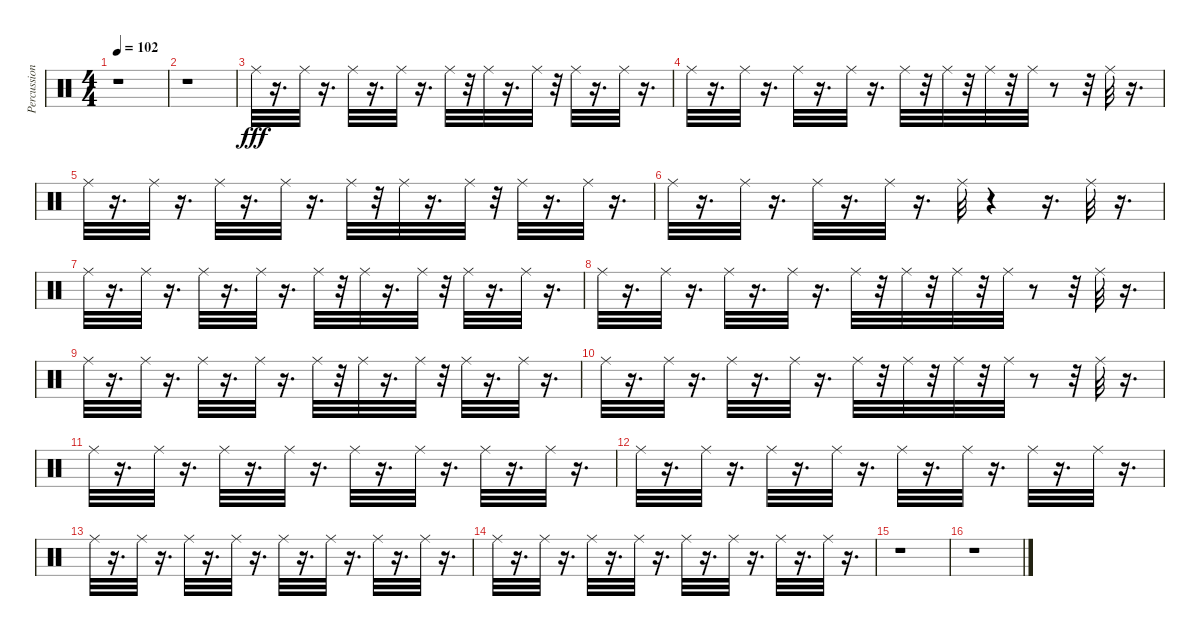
\track ("Percussion" "Percussion") {instrument percussion}
\staff {score}
\articulation defaults
\ts (4 4)
\tempo 102
\clef neutral
\ks c
r.1{dy fff} |
r.1 |
"Ride (middle)".32 r.16{d} "Ride (middle)".32 r.16{d} "Ride (middle)".32 r.16{d} "Ride (middle)".32 r.16{d} "Ride (middle)".32 r.32 "Ride (middle)".32 r.16{d} "Ride (middle)".32 r.32 "Ride (middle)".32 r.16{d} "Ride (middle)".32 r.16{d} |
"Ride (middle)".32 r.16{d} "Ride (middle)".32 r.16{d} "Ride (middle)".32 r.16{d} "Ride (middle)".32 r.16{d} "Ride (middle)".32 r.32 "Ride (middle)".32 r.32 "Ride (middle)".32 r.32 "Ride (middle)".32 r.8 r.32 "Ride (middle)".32 r.16{d} |
"Ride (middle)".32 r.16{d} "Ride (middle)".32 r.16{d} "Ride (middle)".32 r.16{d} "Ride (middle)".32 r.16{d} "Ride (middle)".32 r.32 "Ride (middle)".32 r.16{d} "Ride (middle)".32 r.32 "Ride (middle)".32 r.16{d} "Ride (middle)".32 r.16{d} |
"Ride (middle)".32 r.16{d} "Ride (middle)".32 r.16{d} "Ride (middle)".32 r.16{d} "Ride (middle)".32 r.16{d} "Ride (middle)".32 r.4 r.16{d} "Ride (middle)".32 r.16{d} |
"Ride (middle)".32 r.16{d} "Ride (middle)".32 r.16{d} "Ride (middle)".32 r.16{d} "Ride (middle)".32 r.16{d} "Ride (middle)".32 r.32 "Ride (middle)".32 r.16{d} "Ride (middle)".32 r.32 "Ride (middle)".32 r.16{d} "Ride (middle)".32 r.16{d} |
"Ride (middle)".32 r.16{d} "Ride (middle)".32 r.16{d} "Ride (middle)".32 r.16{d} "Ride (middle)".32 r.16{d} "Ride (middle)".32 r.32 "Ride (middle)".32 r.32 "Ride (middle)".32 r.32 "Ride (middle)".32 r.8 r.32 "Ride (middle)".32 r.16{d} |
"Ride (middle)".32 r.16{d} "Ride (middle)".32 r.16{d} "Ride (middle)".32 r.16{d} "Ride (middle)".32 r.16{d} "Ride (middle)".32 r.32 "Ride (middle)".32 r.16{d} "Ride (middle)".32 r.32 "Ride (middle)".32 r.16{d} "Ride (middle)".32 r.16{d} |
"Ride (middle)".32 r.16{d} "Ride (middle)".32 r.16{d} "Ride (middle)".32 r.16{d} "Ride (middle)".32 r.16{d} "Ride (middle)".32 r.32 "Ride (middle)".32 r.32 "Ride (middle)".32 r.32 "Ride (middle)".32 r.8 r.32 "Ride (middle)".32 r.16{d} |
"Ride (middle)".32 r.16{d} "Ride (middle)".32 r.16{d} "Ride (middle)".32 r.16{d} "Ride (middle)".32 r.16{d} "Ride (middle)".32 r.16{d} "Ride (middle)".32 r.16{d} "Ride (middle)".32 r.16{d} "Ride (middle)".32 r.16{d} |
"Ride (middle)".32 r.16{d} "Ride (middle)".32 r.16{d} "Ride (middle)".32 r.16{d} "Ride (middle)".32 r.16{d} "Ride (middle)".32 r.16{d} "Ride (middle)".32 r.16{d} "Ride (middle)".32 r.16{d} "Ride (middle)".32 r.16{d} |
"Ride (middle)".32 r.16{d} "Ride (middle)".32 r.16{d} "Ride (middle)".32 r.16{d} "Ride (middle)".32 r.16{d} "Ride (middle)".32 r.16{d} "Ride (middle)".32 r.16{d} "Ride (middle)".32 r.16{d} "Ride (middle)".32 r.16{d} |
"Ride (middle)".32 r.16{d} "Ride (middle)".32 r.16{d} "Ride (middle)".32 r.16{d} "Ride (middle)".32 r.16{d} "Ride (middle)".32 r.16{d} "Ride (middle)".32 r.16{d} "Ride (middle)".32 r.16{d} "Ride (middle)".32 r.16{d} |
r.1 |
r.1
